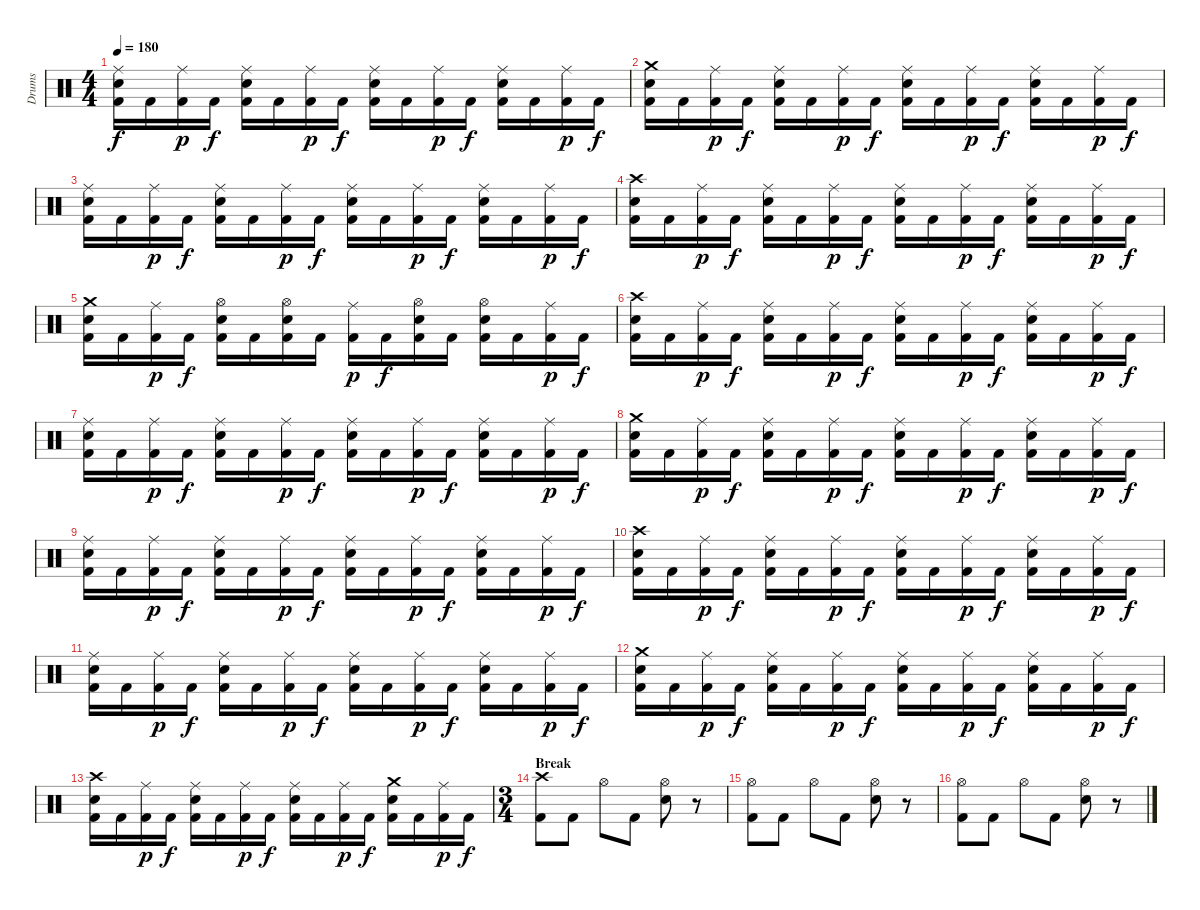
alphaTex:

\track ("Drums" "Drums") {instrument percussion}
\staff {score}
\articulation defaults
\ts (4 4)
\tempo 180
\clef neutral
\ks c
("Ride (middle)" "Snare (hit) 2" "Kick (hit) 2").16{dy f} "Kick (hit) 2".16 ("Ride (middle)" "Kick (hit) 2").16{dy p} "Kick (hit) 2".16{dy f} ("Ride (middle)" "Snare (hit) 2" "Kick (hit) 2").16 "Kick (hit) 2".16 ("Ride (middle)" "Kick (hit) 2").16{dy p} "Kick (hit) 2".16{dy f} ("Ride (middle)" "Snare (hit) 2" "Kick (hit) 2").16 "Kick (hit) 2".16 ("Ride (middle)" "Kick (hit) 2").16{dy p} "Kick (hit) 2".16{dy f} ("Ride (middle)" "Snare (hit) 2" "Kick (hit) 2").16 "Kick (hit) 2".16 ("Ride (middle)" "Kick (hit) 2").16{dy p} "Kick (hit) 2".16{dy f} |
("Crash medium (hit)" "Snare (hit) 2" "Kick (hit) 2").16 "Kick (hit) 2".16 ("Ride (middle)" "Kick (hit) 2").16{dy p} "Kick (hit) 2".16{dy f} ("Ride (middle)" "Snare (hit) 2" "Kick (hit) 2").16 "Kick (hit) 2".16 ("Ride (middle)" "Kick (hit) 2").16{dy p} "Kick (hit) 2".16{dy f} ("Ride (middle)" "Snare (hit) 2" "Kick (hit) 2").16 "Kick (hit) 2".16 ("Ride (middle)" "Kick (hit) 2").16{dy p} "Kick (hit) 2".16{dy f} ("Ride (middle)" "Snare (hit) 2" "Kick (hit) 2").16 "Kick (hit) 2".16 ("Ride (middle)" "Kick (hit) 2").16{dy p} "Kick (hit) 2".16{dy f} |
("Ride (middle)" "Snare (hit) 2" "Kick (hit) 2").16 "Kick (hit) 2".16 ("Ride (middle)" "Kick (hit) 2").16{dy p} "Kick (hit) 2".16{dy f} ("Ride (middle)" "Snare (hit) 2" "Kick (hit) 2").16 "Kick (hit) 2".16 ("Ride (middle)" "Kick (hit) 2").16{dy p} "Kick (hit) 2".16{dy f} ("Ride (middle)" "Snare (hit) 2" "Kick (hit) 2").16 "Kick (hit) 2".16 ("Ride (middle)" "Kick (hit) 2").16{dy p} "Kick (hit) 2".16{dy f} ("Ride (middle)" "Snare (hit) 2" "Kick (hit) 2").16 "Kick (hit) 2".16 ("Ride (middle)" "Kick (hit) 2").16{dy p} "Kick (hit) 2".16{dy f} |
("Crash high (hit)" "Snare (hit) 2" "Kick (hit) 2").16 "Kick (hit) 2".16 ("Ride (middle)" "Kick (hit) 2").16{dy p} "Kick (hit) 2".16{dy f} ("Ride (middle)" "Snare (hit) 2" "Kick (hit) 2").16 "Kick (hit) 2".16 ("Ride (middle)" "Kick (hit) 2").16{dy p} "Kick (hit) 2".16{dy f} ("Ride (middle)" "Snare (hit) 2" "Kick (hit) 2").16 "Kick (hit) 2".16 ("Ride (middle)" "Kick (hit) 2").16{dy p} "Kick (hit) 2".16{dy f} ("Ride (middle)" "Snare (hit) 2" "Kick (hit) 2").16 "Kick (hit) 2".16 ("Ride (middle)" "Kick (hit) 2").16{dy p} "Kick (hit) 2".16{dy f} |
("Crash medium (hit)" "Snare (hit) 2" "Kick (hit) 2").16 "Kick (hit) 2".16 ("Ride (middle)" "Kick (hit) 2").16{dy p} "Kick (hit) 2".16{dy f} ("Hi-Hat (open)" "Snare (hit) 2" "Kick (hit) 2").16 "Kick (hit) 2".16 ("Hi-Hat (open)" "Snare (hit) 2" "Kick (hit) 2").16 "Kick (hit) 2".16 ("Ride (middle)" "Kick (hit) 2").16{dy p} "Kick (hit) 2".16{dy f} ("Hi-Hat (open)" "Snare (hit) 2" "Kick (hit) 2").16 "Kick (hit) 2".16 ("Hi-Hat (open)" "Snare (hit) 2" "Kick (hit) 2").16 "Kick (hit) 2".16 ("Ride (middle)" "Kick (hit) 2").16{dy p} "Kick (hit) 2".16{dy f} |
("Crash high (hit)" "Snare (hit) 2" "Kick (hit) 2").16 "Kick (hit) 2".16 ("Ride (middle)" "Kick (hit) 2").16{dy p} "Kick (hit) 2".16{dy f} ("Ride (middle)" "Snare (hit) 2" "Kick (hit) 2").16 "Kick (hit) 2".16 ("Ride (middle)" "Kick (hit) 2").16{dy p} "Kick (hit) 2".16{dy f} ("Ride (middle)" "Snare (hit) 2" "Kick (hit) 2").16 "Kick (hit) 2".16 ("Ride (middle)" "Kick (hit) 2").16{dy p} "Kick (hit) 2".16{dy f} ("Ride (middle)" "Snare (hit) 2" "Kick (hit) 2").16 "Kick (hit) 2".16 ("Ride (middle)" "Kick (hit) 2").16{dy p} "Kick (hit) 2".16{dy f} |
("Ride (middle)" "Snare (hit) 2" "Kick (hit) 2").16 "Kick (hit) 2".16 ("Ride (middle)" "Kick (hit) 2").16{dy p} "Kick (hit) 2".16{dy f} ("Ride (middle)" "Snare (hit) 2" "Kick (hit) 2").16 "Kick (hit) 2".16 ("Ride (middle)" "Kick (hit) 2").16{dy p} "Kick (hit) 2".16{dy f} ("Ride (middle)" "Snare (hit) 2" "Kick (hit) 2").16 "Kick (hit) 2".16 ("Ride (middle)" "Kick (hit) 2").16{dy p} "Kick (hit) 2".16{dy f} ("Ride (middle)" "Snare (hit) 2" "Kick (hit) 2").16 "Kick (hit) 2".16 ("Ride (middle)" "Kick (hit) 2").16{dy p} "Kick (hit) 2".16{dy f} |
("Crash medium (hit)" "Snare (hit) 2" "Kick (hit) 2").16 "Kick (hit) 2".16 ("Ride (middle)" "Kick (hit) 2").16{dy p} "Kick (hit) 2".16{dy f} ("Ride (middle)" "Snare (hit) 2" "Kick (hit) 2").16 "Kick (hit) 2".16 ("Ride (middle)" "Kick (hit) 2").16{dy p} "Kick (hit) 2".16{dy f} ("Ride (middle)" "Snare (hit) 2" "Kick (hit) 2").16 "Kick (hit) 2".16 ("Ride (middle)" "Kick (hit) 2").16{dy p} "Kick (hit) 2".16{dy f} ("Ride (middle)" "Snare (hit) 2" "Kick (hit) 2").16 "Kick (hit) 2".16 ("Ride (middle)" "Kick (hit) 2").16{dy p} "Kick (hit) 2".16{dy f} |
("Ride (middle)" "Snare (hit) 2" "Kick (hit) 2").16 "Kick (hit) 2".16 ("Ride (middle)" "Kick (hit) 2").16{dy p} "Kick (hit) 2".16{dy f} ("Ride (middle)" "Snare (hit) 2" "Kick (hit) 2").16 "Kick (hit) 2".16 ("Ride (middle)" "Kick (hit) 2").16{dy p} "Kick (hit) 2".16{dy f} ("Ride (middle)" "Snare (hit) 2" "Kick (hit) 2").16 "Kick (hit) 2".16 ("Ride (middle)" "Kick (hit) 2").16{dy p} "Kick (hit) 2".16{dy f} ("Ride (middle)" "Snare (hit) 2" "Kick (hit) 2").16 "Kick (hit) 2".16 ("Ride (middle)" "Kick (hit) 2").16{dy p} "Kick (hit) 2".16{dy f} |
("Crash high (hit)" "Snare (hit) 2" "Kick (hit) 2").16 "Kick (hit) 2".16 ("Ride (middle)" "Kick (hit) 2").16{dy p} "Kick (hit) 2".16{dy f} ("Ride (middle)" "Snare (hit) 2" "Kick (hit) 2").16 "Kick (hit) 2".16 ("Ride (middle)" "Kick (hit) 2").16{dy p} "Kick (hit) 2".16{dy f} ("Ride (middle)" "Snare (hit) 2" "Kick (hit) 2").16 "Kick (hit) 2".16 ("Ride (middle)" "Kick (hit) 2").16{dy p} "Kick (hit) 2".16{dy f} ("Ride (middle)" "Snare (hit) 2" "Kick (hit) 2").16 "Kick (hit) 2".16 ("Ride (middle)" "Kick (hit) 2").16{dy p} "Kick (hit) 2".16{dy f} |
("Ride (middle)" "Snare (hit) 2" "Kick (hit) 2").16 "Kick (hit) 2".16 ("Ride (middle)" "Kick (hit) 2").16{dy p} "Kick (hit) 2".16{dy f} ("Ride (middle)" "Snare (hit) 2" "Kick (hit) 2").16 "Kick (hit) 2".16 ("Ride (middle)" "Kick (hit) 2").16{dy p} "Kick (hit) 2".16{dy f} ("Ride (middle)" "Snare (hit) 2" "Kick (hit) 2").16 "Kick (hit) 2".16 ("Ride (middle)" "Kick (hit) 2").16{dy p} "Kick (hit) 2".16{dy f} ("Ride (middle)" "Snare (hit) 2" "Kick (hit) 2").16 "Kick (hit) 2".16 ("Ride (middle)" "Kick (hit) 2").16{dy p} "Kick (hit) 2".16{dy f} |
("Crash medium (hit)" "Snare (hit) 2" "Kick (hit) 2").16 "Kick (hit) 2".16 ("Ride (middle)" "Kick (hit) 2").16{dy p} "Kick (hit) 2".16{dy f} ("Ride (middle)" "Snare (hit) 2" "Kick (hit) 2").16 "Kick (hit) 2".16 ("Ride (middle)" "Kick (hit) 2").16{dy p} "Kick (hit) 2".16{dy f} ("Ride (middle)" "Snare (hit) 2" "Kick (hit) 2").16 "Kick (hit) 2".16 ("Ride (middle)" "Kick (hit) 2").16{dy p} "Kick (hit) 2".16{dy f} ("Ride (middle)" "Snare (hit) 2" "Kick (hit) 2").16 "Kick (hit) 2".16 ("Ride (middle)" "Kick (hit) 2").16{dy p} "Kick (hit) 2".16{dy f} |
("Crash high (hit)" "Snare (hit) 2" "Kick (hit) 2").16 "Kick (hit) 2".16 ("Ride (middle)" "Kick (hit) 2").16{dy p} "Kick (hit) 2".16{dy f} ("Ride (middle)" "Snare (hit) 2" "Kick (hit) 2").16 "Kick (hit) 2".16 ("Ride (middle)" "Kick (hit) 2").16{dy p} "Kick (hit) 2".16{dy f} ("Ride (middle)" "Snare (hit) 2" "Kick (hit) 2").16 "Kick (hit) 2".16 ("Ride (middle)" "Kick (hit) 2").16{dy p} "Kick (hit) 2".16{dy f} ("Crash medium (hit)" "Snare (hit) 2" "Kick (hit) 2").16 "Kick (hit) 2".16 ("Ride (middle)" "Kick (hit) 2").16{dy p} "Kick (hit) 2".16{dy f} |
\ts (3 4)
\section ("" "Break")
("Crash high (hit)" "Kick (hit) 2").8 "Kick (hit) 2".8 "Hi-Hat (open)".8 "Kick (hit) 2".8 ("Hi-Hat (open)" "Snare (hit) 2").8 r.8 |
("Hi-Hat (open)" "Kick (hit) 2").8 "Kick (hit) 2".8 "Hi-Hat (open)".8 "Kick (hit) 2".8 ("Hi-Hat (open)" "Snare (hit) 2").8 r.8 |
("Hi-Hat (open)" "Kick (hit) 2").8 "Kick (hit) 2".8 "Hi-Hat (open)".8 "Kick (hit) 2".8 ("Hi-Hat (open)" "Snare (hit) 2").8 r.8
